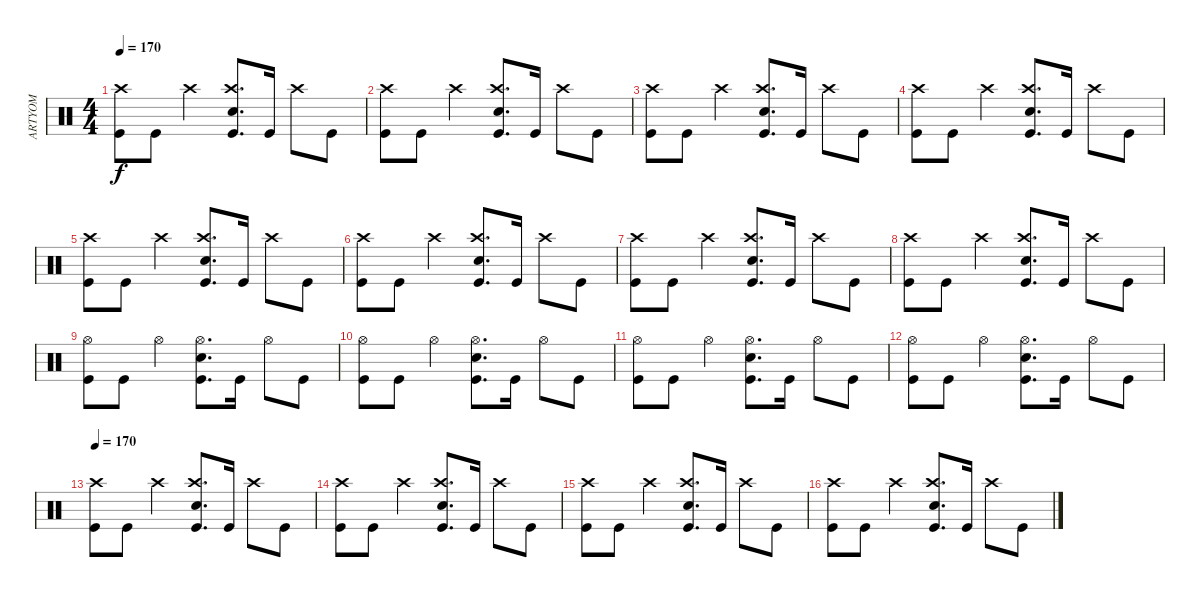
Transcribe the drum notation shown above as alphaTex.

\track ("ARTYOM" "ARTYOM") {instrument percussion}
\staff {score}
\articulation defaults
\ts (4 4)
\tempo 170
\clef neutral
\ks c
("Kick (hit)" "Crash high (hit)").8{dy f} "Kick (hit)".8 "Crash high (hit)".4 ("Crash high (hit)" "Kick (hit)" "Snare (hit) 2").8{d} "Kick (hit)".16 "Crash high (hit)".8 "Kick (hit)".8 |
("Kick (hit)" "Crash high (hit)").8 "Kick (hit)".8 "Crash high (hit)".4 ("Crash high (hit)" "Kick (hit)" "Snare (hit) 2").8{d} "Kick (hit)".16 "Crash high (hit)".8 "Kick (hit)".8 |
("Kick (hit)" "Crash high (hit)").8 "Kick (hit)".8 "Crash high (hit)".4 ("Crash high (hit)" "Kick (hit)" "Snare (hit) 2").8{d} "Kick (hit)".16 "Crash high (hit)".8 "Kick (hit)".8 |
("Kick (hit)" "Crash high (hit)").8 "Kick (hit)".8 "Crash high (hit)".4 ("Crash high (hit)" "Kick (hit)" "Snare (hit) 2").8{d} "Kick (hit)".16 "Crash high (hit)".8 "Kick (hit)".8 |
("Kick (hit)" "Crash high (hit)").8 "Kick (hit)".8 "Crash high (hit)".4 ("Crash high (hit)" "Kick (hit)" "Snare (hit) 2").8{d} "Kick (hit)".16 "Crash high (hit)".8 "Kick (hit)".8 |
("Kick (hit)" "Crash high (hit)").8 "Kick (hit)".8 "Crash high (hit)".4 ("Crash high (hit)" "Kick (hit)" "Snare (hit) 2").8{d} "Kick (hit)".16 "Crash high (hit)".8 "Kick (hit)".8 |
("Kick (hit)" "Crash high (hit)").8 "Kick (hit)".8 "Crash high (hit)".4 ("Crash high (hit)" "Kick (hit)" "Snare (hit) 2").8{d} "Kick (hit)".16 "Crash high (hit)".8 "Kick (hit)".8 |
("Kick (hit)" "Crash high (hit)").8 "Kick (hit)".8 "Crash high (hit)".4 ("Crash high (hit)" "Kick (hit)" "Snare (hit) 2").8{d} "Kick (hit)".16 "Crash high (hit)".8 "Kick (hit)".8 |
("Kick (hit)" "Hi-Hat (open)").8 "Kick (hit)".8 "Hi-Hat (open)".4 ("Hi-Hat (open)" "Kick (hit)" "Snare (hit) 2").8{d} "Kick (hit)".16 "Hi-Hat (open)".8 "Kick (hit)".8 |
("Kick (hit)" "Hi-Hat (open)").8 "Kick (hit)".8 "Hi-Hat (open)".4 ("Hi-Hat (open)" "Kick (hit)" "Snare (hit) 2").8{d} "Kick (hit)".16 "Hi-Hat (open)".8 "Kick (hit)".8 |
("Kick (hit)" "Hi-Hat (open)").8 "Kick (hit)".8 "Hi-Hat (open)".4 ("Hi-Hat (open)" "Kick (hit)" "Snare (hit) 2").8{d} "Kick (hit)".16 "Hi-Hat (open)".8 "Kick (hit)".8 |
("Kick (hit)" "Hi-Hat (open)").8 "Kick (hit)".8 "Hi-Hat (open)".4 ("Hi-Hat (open)" "Kick (hit)" "Snare (hit) 2").8{d} "Kick (hit)".16 "Hi-Hat (open)".8 "Kick (hit)".8 |
\tempo 170
("Kick (hit)" "Crash high (hit)").8 "Kick (hit)".8 "Crash high (hit)".4 ("Crash high (hit)" "Kick (hit)" "Snare (hit) 2").8{d} "Kick (hit)".16 "Crash high (hit)".8 "Kick (hit)".8 |
("Kick (hit)" "Crash high (hit)").8 "Kick (hit)".8 "Crash high (hit)".4 ("Crash high (hit)" "Kick (hit)" "Snare (hit) 2").8{d} "Kick (hit)".16 "Crash high (hit)".8 "Kick (hit)".8 |
("Kick (hit)" "Crash high (hit)").8 "Kick (hit)".8 "Crash high (hit)".4 ("Crash high (hit)" "Kick (hit)" "Snare (hit) 2").8{d} "Kick (hit)".16 "Crash high (hit)".8 "Kick (hit)".8 |
("Kick (hit)" "Crash high (hit)").8 "Kick (hit)".8 "Crash high (hit)".4 ("Crash high (hit)" "Kick (hit)" "Snare (hit) 2").8{d} "Kick (hit)".16 "Crash high (hit)".8 "Kick (hit)".8
